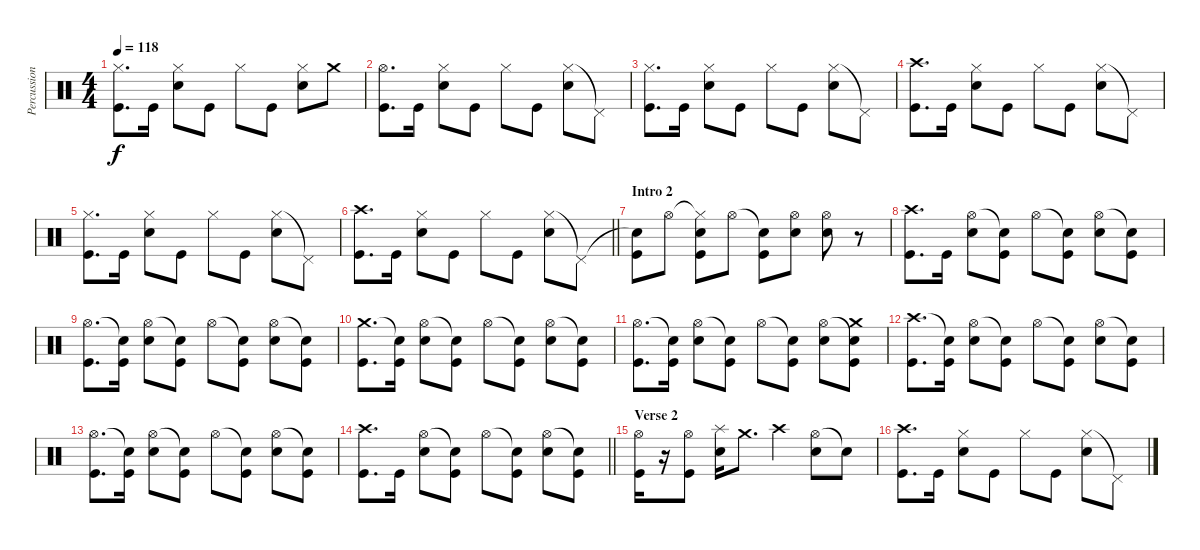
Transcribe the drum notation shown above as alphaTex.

\track ("Percussion 1" "Percussion") {instrument percussion}
\staff {score}
\articulation defaults
\ts (4 4)
\tempo 118
\clef neutral
\ks c
("Hi-Hat (closed)" "Kick (hit)").8{d dy f} "Kick (hit)".16 ("Hi-Hat (closed)" "Electric Snare (hit)").8 "Kick (hit)".8 "Hi-Hat (closed)".8 "Kick (hit)".8 ("Hi-Hat (closed)" "Electric Snare (hit)").8 "Crash medium (hit)".8 |
("Hi-Hat (open)" "Kick (hit)").8{d} "Kick (hit)".16 ("Hi-Hat (closed)" "Electric Snare (hit)").8 "Kick (hit)".8 "Hi-Hat (closed)".8 "Kick (hit)".8 ("Hi-Hat (closed)" "Electric Snare (hit)").8 "Pedal Hi-Hat (hit)"{t}.8 |
("Hi-Hat (closed)" "Kick (hit)").8{d} "Kick (hit)".16 ("Hi-Hat (closed)" "Electric Snare (hit)").8 "Kick (hit)".8 "Hi-Hat (closed)".8 "Kick (hit)".8 ("Hi-Hat (closed)" "Electric Snare (hit)").8 "Pedal Hi-Hat (hit)"{t}.8 |
("Crash high (hit)" "Kick (hit)").8{d} "Kick (hit)".16 ("Hi-Hat (closed)" "Electric Snare (hit)").8 "Kick (hit)".8 "Hi-Hat (closed)".8 "Kick (hit)".8 ("Hi-Hat (closed)" "Electric Snare (hit)").8 "Pedal Hi-Hat (hit)"{t}.8 |
("Hi-Hat (closed)" "Kick (hit)").8{d} "Kick (hit)".16 ("Hi-Hat (closed)" "Electric Snare (hit)").8 "Kick (hit)".8 "Hi-Hat (closed)".8 "Kick (hit)".8 ("Hi-Hat (closed)" "Electric Snare (hit)").8 "Pedal Hi-Hat (hit)"{t}.8 |
\barLineRight lightlight
("Crash high (hit)" "Kick (hit)").8{d} "Kick (hit)".16 ("Hi-Hat (closed)" "Electric Snare (hit)").8 "Kick (hit)".8 "Hi-Hat (closed)".8 "Kick (hit)".8 ("Hi-Hat (closed)" "Electric Snare (hit)").8 "Pedal Hi-Hat (hit)"{t}.8 |
\section ("" "Intro 2")
("Snare (hit)"{t} "Kick (hit)").8 "Hi-Hat (open)".8 ("Hi-Hat (closed)"{t} "Electric Snare (hit)" "Kick (hit)").8 "Hi-Hat (open)".8 ("Snare (hit)"{t} "Kick (hit)").8 ("Electric Snare (hit)" "Hi-Hat (open)").8 ("Hi-Hat (open)" "Electric Snare (hit)").8 r.8 |
("Crash high (hit)" "Kick (hit)").8{d} "Kick (hit)".16 ("Hi-Hat (open)" "Electric Snare (hit)").8 ("Snare (hit)"{t} "Kick (hit)").8 "Hi-Hat (open)".8 ("Snare (hit)"{t} "Kick (hit)").8 ("Hi-Hat (open)" "Electric Snare (hit)").8 ("Snare (hit)"{t} "Kick (hit)").8 |
("Hi-Hat (open)" "Kick (hit)").8{d} ("Snare (hit)"{t} "Kick (hit)").16 ("Hi-Hat (open)" "Electric Snare (hit)").8 ("Snare (hit)"{t} "Kick (hit)").8 "Hi-Hat (open)".8 ("Snare (hit)"{t} "Kick (hit)").8 ("Hi-Hat (open)" "Electric Snare (hit)").8 ("Snare (hit)"{t} "Kick (hit)").8 |
("Crash medium (hit)" "Kick (hit)").8{d} ("Snare (hit)"{t} "Kick (hit)").16 ("Hi-Hat (open)" "Electric Snare (hit)").8 ("Snare (hit)"{t} "Kick (hit)").8 "Hi-Hat (open)".8 ("Snare (hit)"{t} "Kick (hit)").8 ("Hi-Hat (open)" "Electric Snare (hit)").8 ("Snare (hit)"{t} "Kick (hit)").8 |
("Hi-Hat (open)" "Kick (hit)").8{d} ("Snare (hit)"{t} "Kick (hit)").16 ("Hi-Hat (open)" "Electric Snare (hit)").8 ("Snare (hit)"{t} "Kick (hit)").8 "Hi-Hat (open)".8 ("Snare (hit)"{t} "Kick (hit)").8 ("Hi-Hat (open)" "Electric Snare (hit)").8 ("Snare (hit)"{t} "Crash medium (hit)" "Kick (hit)").8 |
("Crash high (hit)" "Kick (hit)").8{d} ("Snare (hit)"{t} "Kick (hit)").16 ("Hi-Hat (open)" "Electric Snare (hit)").8 ("Snare (hit)"{t} "Kick (hit)").8 "Hi-Hat (open)".8 ("Snare (hit)"{t} "Kick (hit)").8 ("Hi-Hat (open)" "Electric Snare (hit)").8 ("Snare (hit)"{t} "Kick (hit)").8 |
("Hi-Hat (open)" "Kick (hit)").8{d} ("Snare (hit)"{t} "Kick (hit)").16 ("Hi-Hat (open)" "Electric Snare (hit)").8 ("Snare (hit)"{t} "Kick (hit)").8 "Hi-Hat (open)".8 ("Snare (hit)"{t} "Kick (hit)").8 ("Hi-Hat (open)" "Electric Snare (hit)").8 ("Snare (hit)"{t} "Kick (hit)").8 |
\barLineRight lightlight
("Crash high (hit)" "Kick (hit)").8{d} "Kick (hit)".16 ("Hi-Hat (open)" "Electric Snare (hit)").8 ("Snare (hit)"{t} "Kick (hit)").8 "Hi-Hat (open)".8 ("Snare (hit)"{t} "Kick (hit)").8 ("Hi-Hat (open)" "Electric Snare (hit)").8 ("Snare (hit)"{t} "Kick (hit)").8 |
\section ("" "Verse 2")
("Hi-Hat (open)" "Kick (hit)").16 r.16 ("Hi-Hat (open)" "Kick (hit)").8 ("Electric Snare (hit)" "Splash (hit)").16 "Crash medium (hit)".8{d} "Crash high (hit)".4 ("Hi-Hat (open)" "Electric Snare (hit)").8 "Snare (hit)"{t}.8 |
("Crash high (hit)" "Kick (hit)").8{d} "Kick (hit)".16 ("Hi-Hat (closed)" "Electric Snare (hit)").8 "Kick (hit)".8 "Hi-Hat (closed)".8 "Kick (hit)".8 ("Hi-Hat (closed)" "Electric Snare (hit)").8 "Pedal Hi-Hat (hit)"{t}.8
